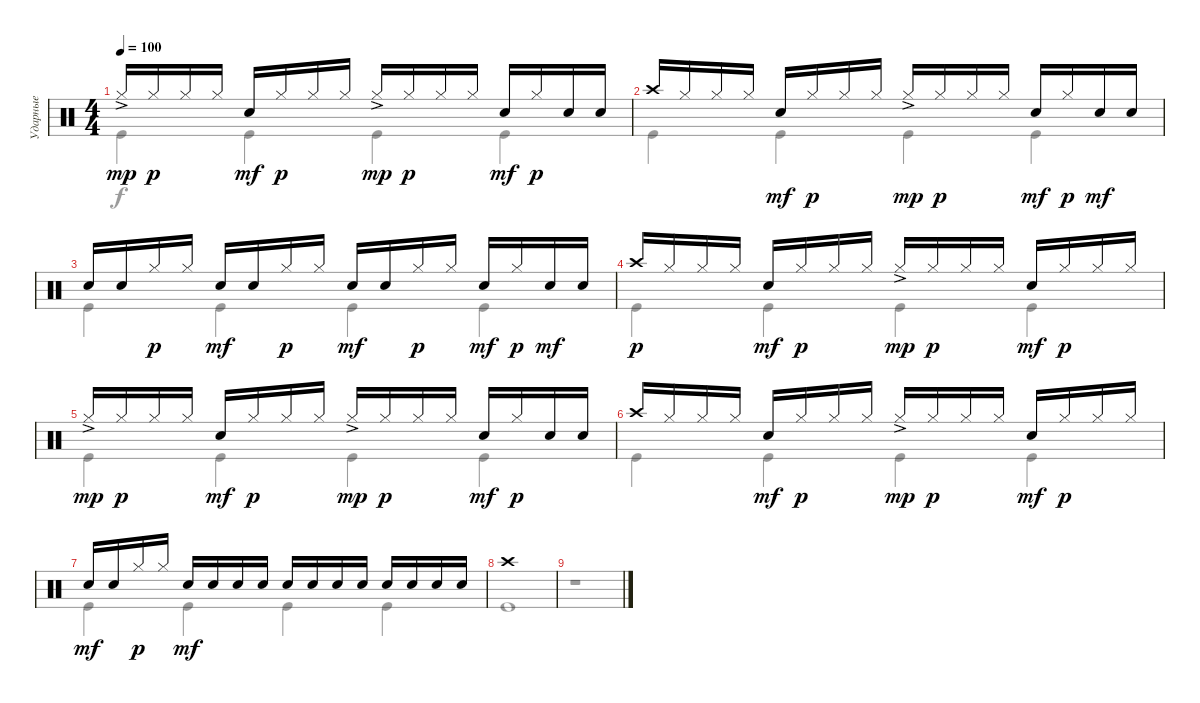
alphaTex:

\track ("Ударные" "Ударные") {instrument percussion}
\staff {score}
\articulation defaults
\voice
\ts (4 4)
\tempo 100
\clef neutral
\ks c "Hi-Hat (closed)"{ac}.16{dy mp} "Hi-Hat (closed)".16{dy p} "Hi-Hat (closed)".16 "Hi-Hat (closed)".16 "Snare (hit) 2".16{dy mf} "Hi-Hat (closed)".16{dy p} "Hi-Hat (closed)".16 "Hi-Hat (closed)".16 "Hi-Hat (closed)"{ac}.16{dy mp} "Hi-Hat (closed)".16{dy p} "Hi-Hat (closed)".16 "Hi-Hat (closed)".16 "Snare (hit) 2".16{dy mf} "Hi-Hat (closed)".16{dy p} "Snare (hit) 2".16 "Snare (hit) 2".16
|
"Crash high (hit)".16 "Hi-Hat (closed)".16 "Hi-Hat (closed)".16 "Hi-Hat (closed)".16 "Snare (hit) 2".16{dy mf} "Hi-Hat (closed)".16{dy p} "Hi-Hat (closed)".16 "Hi-Hat (closed)".16 "Hi-Hat (closed)"{ac}.16{dy mp} "Hi-Hat (closed)".16{dy p} "Hi-Hat (closed)".16 "Hi-Hat (closed)".16 "Snare (hit) 2".16{dy mf} "Hi-Hat (closed)".16{dy p} "Snare (hit) 2".16{dy mf} "Snare (hit) 2".16 |
"Snare (hit) 2".16 "Snare (hit) 2".16 "Hi-Hat (closed)".16{dy p} "Hi-Hat (closed)".16 "Snare (hit) 2".16{dy mf} "Snare (hit) 2".16 "Hi-Hat (closed)".16{dy p} "Hi-Hat (closed)".16 "Snare (hit) 2".16{dy mf} "Snare (hit) 2".16 "Hi-Hat (closed)".16{dy p} "Hi-Hat (closed)".16 "Snare (hit) 2".16{dy mf} "Hi-Hat (closed)".16{dy p} "Snare (hit) 2".16{dy mf} "Snare (hit) 2".16 |
"Crash high (hit)".16{dy p} "Hi-Hat (closed)".16 "Hi-Hat (closed)".16 "Hi-Hat (closed)".16 "Snare (hit) 2".16{dy mf} "Hi-Hat (closed)".16{dy p} "Hi-Hat (closed)".16 "Hi-Hat (closed)".16 "Hi-Hat (closed)"{ac}.16{dy mp} "Hi-Hat (closed)".16{dy p} "Hi-Hat (closed)".16 "Hi-Hat (closed)".16 "Snare (hit) 2".16{dy mf} "Hi-Hat (closed)".16{dy p} "Hi-Hat (closed)".16 "Hi-Hat (closed)".16 |
"Hi-Hat (closed)"{ac}.16{dy mp} "Hi-Hat (closed)".16{dy p} "Hi-Hat (closed)".16 "Hi-Hat (closed)".16 "Snare (hit) 2".16{dy mf} "Hi-Hat (closed)".16{dy p} "Hi-Hat (closed)".16 "Hi-Hat (closed)".16 "Hi-Hat (closed)"{ac}.16{dy mp} "Hi-Hat (closed)".16{dy p} "Hi-Hat (closed)".16 "Hi-Hat (closed)".16 "Snare (hit) 2".16{dy mf} "Hi-Hat (closed)".16{dy p} "Snare (hit) 2".16 "Snare (hit) 2".16 |
"Crash high (hit)".16 "Hi-Hat (closed)".16 "Hi-Hat (closed)".16 "Hi-Hat (closed)".16 "Snare (hit) 2".16{dy mf} "Hi-Hat (closed)".16{dy p} "Hi-Hat (closed)".16 "Hi-Hat (closed)".16 "Hi-Hat (closed)"{ac}.16{dy mp} "Hi-Hat (closed)".16{dy p} "Hi-Hat (closed)".16 "Hi-Hat (closed)".16 "Snare (hit) 2".16{dy mf} "Hi-Hat (closed)".16{dy p} "Hi-Hat (closed)".16 "Hi-Hat (closed)".16 |
"Snare (hit) 2".16{dy mf} "Snare (hit) 2".16 "Hi-Hat (closed)".16{dy p} "Hi-Hat (closed)".16 "Snare (hit) 2".16{dy mf} "Snare (hit) 2".16 "Snare (hit) 2".16 "Snare (hit) 2".16 "Snare (hit) 2".16 "Snare (hit) 2".16 "Snare (hit) 2".16 "Snare (hit) 2".16 "Snare (hit) 2".16 "Snare (hit) 2".16 "Snare (hit) 2".16 "Snare (hit) 2".16 |
"Crash high (hit)".1 |
\voice
\clef neutral
\ottava regular
\simile none
\ks c "Kick (hit)".4{dy f} "Kick (hit)".4 "Kick (hit)".4 "Kick (hit)".4
|
"Kick (hit)".4 "Kick (hit)".4 "Kick (hit)".4 "Kick (hit)".4 |
"Kick (hit)".4 "Kick (hit)".4 "Kick (hit)".4 "Kick (hit)".4 |
"Kick (hit)".4 "Kick (hit)".4 "Kick (hit)".4 "Kick (hit)".4 |
"Kick (hit)".4 "Kick (hit)".4 "Kick (hit)".4 "Kick (hit)".4 |
"Kick (hit)".4 "Kick (hit)".4 "Kick (hit)".4 "Kick (hit)".4 |
"Kick (hit)".4 "Kick (hit)".4 "Kick (hit)".4 "Kick (hit)".4 |
"Kick (hit)".1 |
r.1
